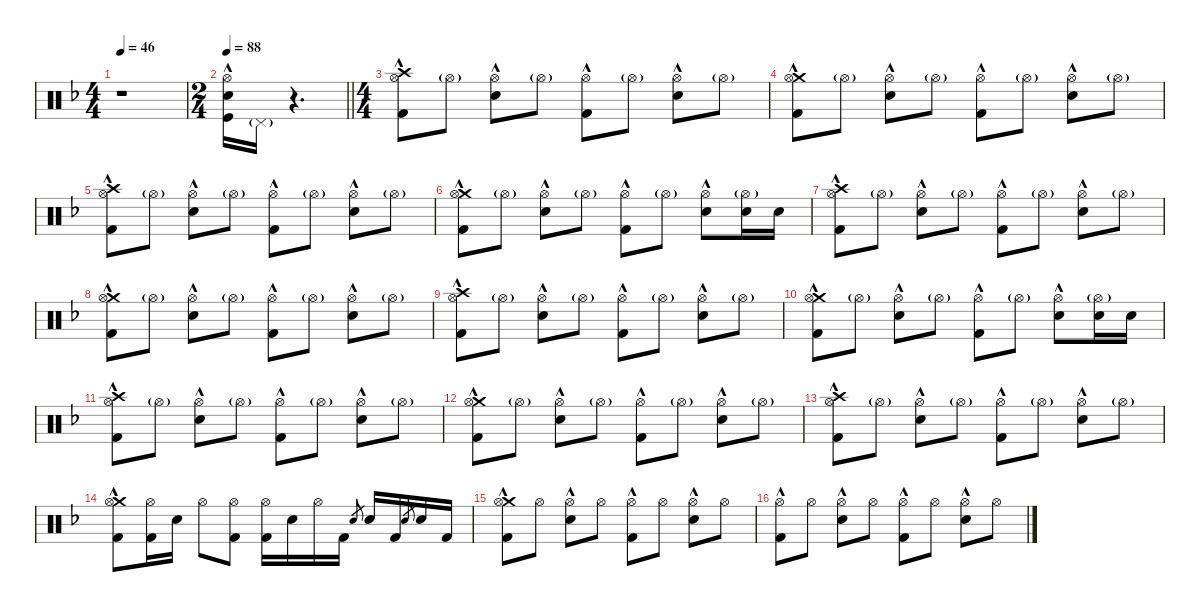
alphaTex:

\defaultSystemsLayout 4
\hideDynamics
\bracketExtendMode nobrackets
\singleTrackTrackNamePolicy hidden
\multiTrackTrackNamePolicy hidden
\otherSystemsTrackNameOrientation horizontal
\track ("Martin Lopez - Drums" "drm.") {defaultSystemsLayout 4 instrument percussion}
\staff {score}
\articulation defaults
\ts (4 4)
\beaming (8 2 2 2 2)
\tempo 46
\clef neutral
\ks dminor
r.1{dy mf beam Down} |
\ts (2 4)
\beaming (8 2 2 2 2)
\tempo 88
\barLineRight lightlight
("Hi-Hat (open)"{hac acc forcenatural} "Snare (hit) 2"{hac acc forcenatural} "Kick (hit)"{hac acc forcenatural}).16{beam Down} "Pedal Hi-Hat (hit)"{g acc forcenatural}.16{dy mp beam Down} r.4{d beam Down} |
\ts (4 4)
\beaming (8 2 2 2 2)
\tempo (89 hide)
("Crash high (hit)"{acc forcenatural} "Hi-Hat (open)"{acc forcenatural} "Kick (hit) 2"{hac acc forcenatural}).8{dy mf beam Down} "Hi-Hat (open)"{g acc forcenatural}.8{dy mp beam Down} ("Hi-Hat (open)"{acc forcenatural} "Snare (hit) 2"{hac acc forcenatural}).8{dy mf beam Down} "Hi-Hat (open)"{g acc forcenatural}.8{dy mp beam Down} ("Hi-Hat (open)"{acc forcenatural} "Kick (hit) 2"{hac acc forcenatural}).8{dy mf beam Down} "Hi-Hat (open)"{g acc forcenatural}.8{dy mp beam Down} ("Hi-Hat (open)"{acc forcenatural} "Snare (hit) 2"{hac acc forcenatural}).8{dy mf beam Down} "Hi-Hat (open)"{g acc forcenatural}.8{dy mp beam Down} |
\tempo (88 hide)
("Crash medium (hit)"{acc forcenatural} "Hi-Hat (open)"{acc forcenatural} "Kick (hit) 2"{hac acc forcenatural}).8{dy mf beam Down} "Hi-Hat (open)"{g acc forcenatural}.8{dy mp beam Down} ("Hi-Hat (open)"{acc forcenatural} "Snare (hit) 2"{hac acc forcenatural}).8{dy mf beam Down} "Hi-Hat (open)"{g acc forcenatural}.8{dy mp beam Down} ("Hi-Hat (open)"{acc forcenatural} "Kick (hit) 2"{hac acc forcenatural}).8{dy mf beam Down} "Hi-Hat (open)"{g acc forcenatural}.8{dy mp beam Down} ("Hi-Hat (open)"{acc forcenatural} "Snare (hit) 2"{hac acc forcenatural}).8{dy mf beam Down} "Hi-Hat (open)"{g acc forcenatural}.8{dy mp beam Down} |
\tempo (89 hide)
("Crash high (hit)"{acc forcenatural} "Hi-Hat (open)"{acc forcenatural} "Kick (hit) 2"{hac acc forcenatural}).8{dy mf beam Down} "Hi-Hat (open)"{g acc forcenatural}.8{dy mp beam Down} ("Hi-Hat (open)"{acc forcenatural} "Snare (hit) 2"{hac acc forcenatural}).8{dy mf beam Down} "Hi-Hat (open)"{g acc forcenatural}.8{dy mp beam Down} ("Hi-Hat (open)"{acc forcenatural} "Kick (hit) 2"{hac acc forcenatural}).8{dy mf beam Down} "Hi-Hat (open)"{g acc forcenatural}.8{dy mp beam Down} ("Hi-Hat (open)"{acc forcenatural} "Snare (hit) 2"{hac acc forcenatural}).8{dy mf beam Down} "Hi-Hat (open)"{g acc forcenatural}.8{dy mp beam Down} |
\tempo (88 hide)
("Crash medium (hit)"{acc forcenatural} "Hi-Hat (open)"{acc forcenatural} "Kick (hit) 2"{hac acc forcenatural}).8{dy mf beam Down} "Hi-Hat (open)"{g acc forcenatural}.8{dy mp beam Down} ("Hi-Hat (open)"{acc forcenatural} "Snare (hit) 2"{hac acc forcenatural}).8{dy mf beam Down} "Hi-Hat (open)"{g acc forcenatural}.8{dy mp beam Down} ("Hi-Hat (open)"{acc forcenatural} "Kick (hit) 2"{hac acc forcenatural}).8{dy mf beam Down} "Hi-Hat (open)"{g acc forcenatural}.8{dy mp beam Down} ("Hi-Hat (open)"{acc forcenatural} "Snare (hit) 2"{hac acc forcenatural}).8{dy mf beam Down} ("Hi-Hat (open)"{g acc forcenatural} "Snare (hit) 2"{acc forcenatural}).16{beam Down} "Snare (hit) 2"{acc forcenatural}.16{beam Down} |
\tempo (89 hide)
("Crash high (hit)"{acc forcenatural} "Hi-Hat (open)"{acc forcenatural} "Kick (hit) 2"{hac acc forcenatural}).8{beam Down} "Hi-Hat (open)"{g acc forcenatural}.8{dy mp beam Down} ("Hi-Hat (open)"{acc forcenatural} "Snare (hit) 2"{hac acc forcenatural}).8{dy mf beam Down} "Hi-Hat (open)"{g acc forcenatural}.8{dy mp beam Down} ("Hi-Hat (open)"{acc forcenatural} "Kick (hit) 2"{hac acc forcenatural}).8{dy mf beam Down} "Hi-Hat (open)"{g acc forcenatural}.8{dy mp beam Down} ("Hi-Hat (open)"{acc forcenatural} "Snare (hit) 2"{hac acc forcenatural}).8{dy mf beam Down} "Hi-Hat (open)"{g acc forcenatural}.8{dy mp beam Down} |
\tempo (88 hide)
\tempo (89 0.992064 hide)
("Crash medium (hit)"{acc forcenatural} "Hi-Hat (open)"{acc forcenatural} "Kick (hit) 2"{hac acc forcenatural}).8{dy mf beam Down} "Hi-Hat (open)"{g acc forcenatural}.8{dy mp beam Down} ("Hi-Hat (open)"{acc forcenatural} "Snare (hit) 2"{hac acc forcenatural}).8{dy mf beam Down} "Hi-Hat (open)"{g acc forcenatural}.8{dy mp beam Down} ("Hi-Hat (open)"{acc forcenatural} "Kick (hit) 2"{hac acc forcenatural}).8{dy mf beam Down} "Hi-Hat (open)"{g acc forcenatural}.8{dy mp beam Down} ("Hi-Hat (open)"{acc forcenatural} "Snare (hit) 2"{hac acc forcenatural}).8{dy mf beam Down} "Hi-Hat (open)"{g acc forcenatural}.8{dy mp beam Down} |
("Crash high (hit)"{acc forcenatural} "Hi-Hat (open)"{acc forcenatural} "Kick (hit) 2"{hac acc forcenatural}).8{dy mf beam Down} "Hi-Hat (open)"{g acc forcenatural}.8{dy mp beam Down} ("Hi-Hat (open)"{acc forcenatural} "Snare (hit) 2"{hac acc forcenatural}).8{dy mf beam Down} "Hi-Hat (open)"{g acc forcenatural}.8{dy mp beam Down} ("Hi-Hat (open)"{acc forcenatural} "Kick (hit) 2"{hac acc forcenatural}).8{dy mf beam Down} "Hi-Hat (open)"{g acc forcenatural}.8{dy mp beam Down} ("Hi-Hat (open)"{acc forcenatural} "Snare (hit) 2"{hac acc forcenatural}).8{dy mf beam Down} "Hi-Hat (open)"{g acc forcenatural}.8{dy mp beam Down} |
\tempo (88 hide)
\tempo (89 0.984127 hide)
("Crash medium (hit)"{acc forcenatural} "Hi-Hat (open)"{acc forcenatural} "Kick (hit) 2"{hac acc forcenatural}).8{dy mf beam Down} "Hi-Hat (open)"{g acc forcenatural}.8{dy mp beam Down} ("Hi-Hat (open)"{acc forcenatural} "Snare (hit) 2"{hac acc forcenatural}).8{dy mf beam Down} "Hi-Hat (open)"{g acc forcenatural}.8{dy mp beam Down} ("Hi-Hat (open)"{acc forcenatural} "Kick (hit) 2"{hac acc forcenatural}).8{dy mf beam Down} "Hi-Hat (open)"{g acc forcenatural}.8{dy mp beam Down} ("Hi-Hat (open)"{acc forcenatural} "Snare (hit) 2"{hac acc forcenatural}).8{dy mf beam Down} ("Hi-Hat (open)"{g acc forcenatural} "Snare (hit) 2"{acc forcenatural}).16{beam Down} "Snare (hit) 2"{acc forcenatural}.16{beam Down} |
("Crash high (hit)"{acc forcenatural} "Hi-Hat (open)"{acc forcenatural} "Kick (hit) 2"{hac acc forcenatural}).8{beam Down} "Hi-Hat (open)"{g acc forcenatural}.8{dy mp beam Down} ("Hi-Hat (open)"{acc forcenatural} "Snare (hit) 2"{hac acc forcenatural}).8{dy mf beam Down} "Hi-Hat (open)"{g acc forcenatural}.8{dy mp beam Down} ("Hi-Hat (open)"{acc forcenatural} "Kick (hit) 2"{hac acc forcenatural}).8{dy mf beam Down} "Hi-Hat (open)"{g acc forcenatural}.8{dy mp beam Down} ("Hi-Hat (open)"{acc forcenatural} "Snare (hit) 2"{hac acc forcenatural}).8{dy mf beam Down} "Hi-Hat (open)"{g acc forcenatural}.8{dy mp beam Down} |
\tempo (88 hide)
("Crash medium (hit)"{acc forcenatural} "Hi-Hat (open)"{acc forcenatural} "Kick (hit) 2"{hac acc forcenatural}).8{dy mf beam Down} "Hi-Hat (open)"{g acc forcenatural}.8{dy mp beam Down} ("Hi-Hat (open)"{acc forcenatural} "Snare (hit) 2"{hac acc forcenatural}).8{dy mf beam Down} "Hi-Hat (open)"{g acc forcenatural}.8{dy mp beam Down} ("Hi-Hat (open)"{acc forcenatural} "Kick (hit) 2"{hac acc forcenatural}).8{dy mf beam Down} "Hi-Hat (open)"{g acc forcenatural}.8{dy mp beam Down} ("Hi-Hat (open)"{acc forcenatural} "Snare (hit) 2"{hac acc forcenatural}).8{dy mf beam Down} "Hi-Hat (open)"{g acc forcenatural}.8{dy mp beam Down} |
\tempo (89 hide)
("Crash high (hit)"{acc forcenatural} "Hi-Hat (open)"{acc forcenatural} "Kick (hit) 2"{hac acc forcenatural}).8{dy mf beam Down} "Hi-Hat (open)"{g acc forcenatural}.8{dy mp beam Down} ("Hi-Hat (open)"{acc forcenatural} "Snare (hit) 2"{hac acc forcenatural}).8{dy mf beam Down} "Hi-Hat (open)"{g acc forcenatural}.8{dy mp beam Down} ("Hi-Hat (open)"{acc forcenatural} "Kick (hit) 2"{hac acc forcenatural}).8{dy mf beam Down} "Hi-Hat (open)"{g acc forcenatural}.8{dy mp beam Down} ("Hi-Hat (open)"{acc forcenatural} "Snare (hit) 2"{hac acc forcenatural}).8{dy mf beam Down} "Hi-Hat (open)"{g acc forcenatural}.8{dy mp beam Down} |
\tempo (88 hide)
("Crash medium (hit)"{acc forcenatural} "Hi-Hat (open)"{acc forcenatural} "Kick (hit) 2"{hac acc forcenatural}).8{dy mf beam Down} ("Hi-Hat (open)"{acc forcenatural} "Kick (hit) 2"{acc forcenatural}).16{beam Down} "Snare (hit) 2"{acc forcenatural}.16{beam Down} "Hi-Hat (open)"{acc forcenatural}.8{beam Down} ("Hi-Hat (open)"{acc forcenatural} "Kick (hit) 2"{acc forcenatural}).8{beam Down} ("Hi-Hat (open)"{acc forcenatural} "Kick (hit) 2"{acc forcenatural}).16{beam Down} "Snare (hit) 2"{acc forcenatural}.16{beam Down} "Hi-Hat (open)"{acc forcenatural}.16{beam Down} "Kick (hit) 2"{acc forcenatural}.16{beam Down} "Electric Snare (hit)"{acc forcenatural}.8{gr dy p beam Up} "Snare (hit) 2"{acc forcenatural}.16{dy mf beam Up} "Kick (hit) 2"{acc forcenatural}.16{beam Up} "Electric Snare (hit)"{acc forcenatural}.8{gr dy p beam Up} "Snare (hit) 2"{acc forcenatural}.16{dy ff beam Up} "Kick (hit) 2"{acc forcenatural}.16{dy fff beam Up} |
\tempo (89 hide)
("Crash medium (hit)"{acc forcenatural} "Hi-Hat (open)"{acc forcenatural} "Kick (hit) 2"{hac acc forcenatural}).8{dy f beam Down} "Hi-Hat (open)"{acc forcenatural}.8{dy mf beam Down} ("Hi-Hat (open)"{acc forcenatural} "Snare (hit) 2"{hac acc forcenatural}).8{beam Down} "Hi-Hat (open)"{acc forcenatural}.8{beam Down} ("Hi-Hat (open)"{acc forcenatural} "Kick (hit) 2"{hac acc forcenatural}).8{beam Down} "Hi-Hat (open)"{acc forcenatural}.8{beam Down} ("Hi-Hat (open)"{acc forcenatural} "Snare (hit) 2"{hac acc forcenatural}).8{beam Down} "Hi-Hat (open)"{acc forcenatural}.8{beam Down} |
\tempo (88 hide)
("Hi-Hat (open)"{acc forcenatural} "Kick (hit) 2"{hac acc forcenatural}).8{beam Down} "Hi-Hat (open)"{acc forcenatural}.8{beam Down} ("Hi-Hat (open)"{acc forcenatural} "Snare (hit) 2"{hac acc forcenatural}).8{beam Down} "Hi-Hat (open)"{acc forcenatural}.8{beam Down} ("Hi-Hat (open)"{acc forcenatural} "Kick (hit) 2"{hac acc forcenatural}).8{beam Down} "Hi-Hat (open)"{acc forcenatural}.8{beam Down} ("Hi-Hat (open)"{acc forcenatural} "Snare (hit) 2"{hac acc forcenatural}).8{beam Down} "Hi-Hat (open)"{acc forcenatural}.8{beam Down}
